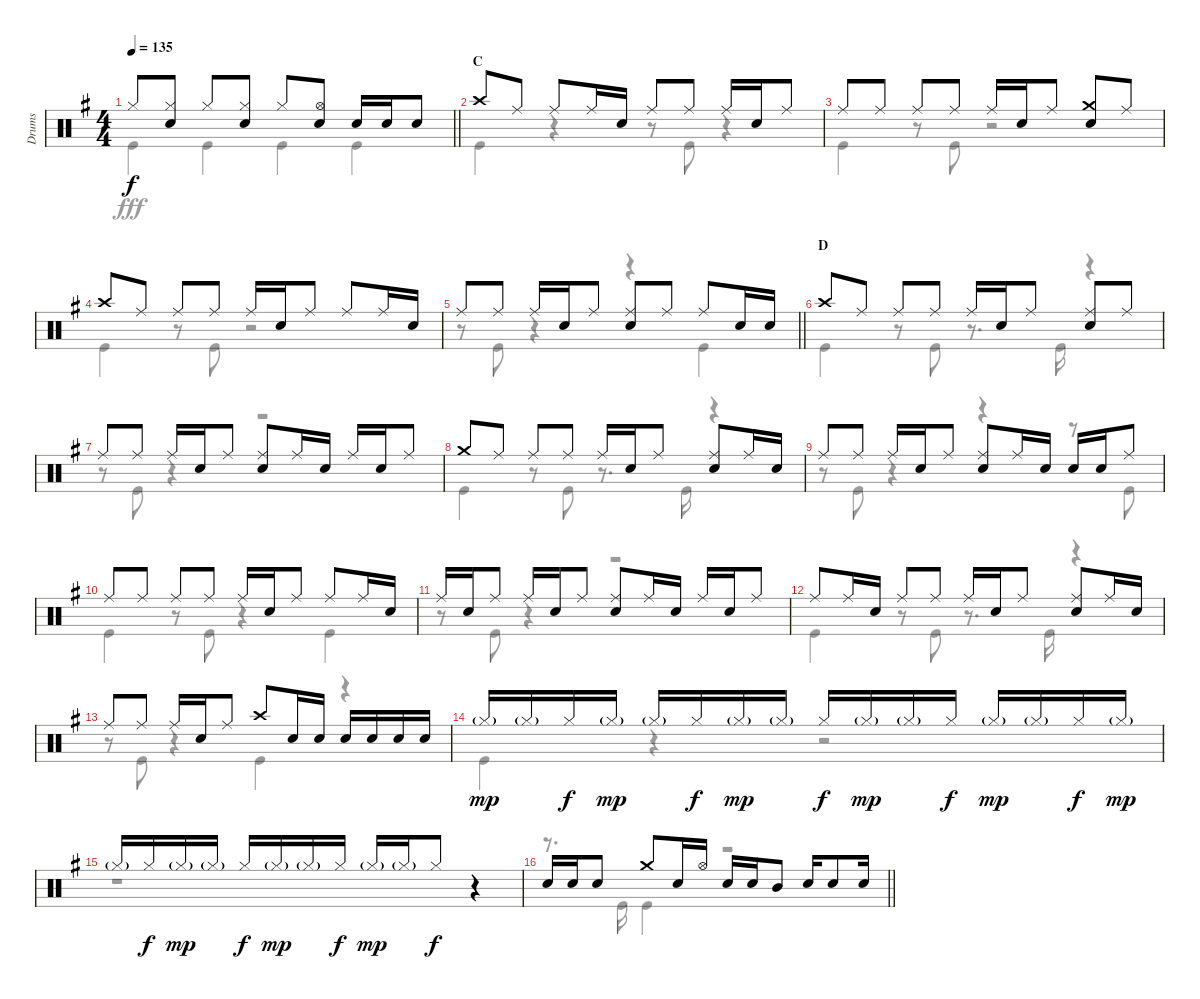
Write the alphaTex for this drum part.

\track ("Drums" "Drums") {instrument percussion}
\staff {score}
\articulation defaults
\voice
\ts (4 4)
\tempo 135
\clef neutral
\barLineRight lightlight
\ks g "Hi-Hat (closed)".8{dy f}
("Hi-Hat (closed)" "Snare (hit) 2").8 "Hi-Hat (closed)".8 ("Hi-Hat (closed)" "Snare (hit) 2").8 "Hi-Hat (closed)".8 ("Hi-Hat (open)" "Snare (hit) 2").8 "Snare (hit) 2".16 "Snare (hit) 2".16 "Snare (hit) 2".8 |
\section ("" "C")
"Crash high (hit)".8 "Ride (middle)".8 "Ride (middle)".8 "Ride (middle)".16 "Snare (hit) 2".16 "Ride (middle)".8 "Ride (middle)".8 "Ride (middle)".16 "Snare (hit) 2".16 "Ride (middle)".8 |
"Ride (middle)".8 "Ride (middle)".8 "Ride (middle)".8 "Ride (middle)".8 "Ride (middle)".16 "Snare (hit) 2".16 "Ride (middle)".8 ("Crash medium (hit)" "Snare (hit) 2").8 "Ride (middle)".8 |
"Crash high (hit)".8 "Ride (middle)".8 "Ride (middle)".8 "Ride (middle)".8 "Ride (middle)".16 "Snare (hit) 2".16 "Ride (middle)".8 "Ride (middle)".8 "Ride (middle)".16 "Snare (hit) 2".16 |
\barLineRight lightlight "Ride (middle)".8 "Ride (middle)".8 "Ride (middle)".16 "Snare (hit) 2".16 "Ride (middle)".8
("Ride (middle)" "Snare (hit) 2").8 "Ride (middle)".8 "Ride (middle)".8 "Snare (hit) 2".16 "Snare (hit) 2".16 |
\section ("" "D")
"Crash high (hit)".8 "Ride (middle)".8 "Ride (middle)".8 "Ride (middle)".8 "Ride (middle)".16 "Snare (hit) 2".16 "Ride (middle)".8 ("Ride (middle)" "Snare (hit) 2").8 "Ride (middle)".8 |
"Ride (middle)".8 "Ride (middle)".8 "Ride (middle)".16 "Snare (hit) 2".16 "Ride (middle)".8 ("Ride (middle)" "Snare (hit) 2").8 "Ride (middle)".16 "Snare (hit) 2".16 "Ride (middle)".16 "Snare (hit) 2".16 "Ride (middle)".8 |
"Crash medium (hit)".8 "Ride (middle)".8 "Ride (middle)".8 "Ride (middle)".8 "Ride (middle)".16 "Snare (hit) 2".16 "Ride (middle)".8 ("Ride (middle)" "Snare (hit) 2").8 "Ride (middle)".16 "Snare (hit) 2".16 |
"Ride (middle)".8 "Ride (middle)".8 "Ride (middle)".16 "Snare (hit) 2".16 "Ride (middle)".8 ("Ride (middle)" "Snare (hit) 2").8 "Ride (middle)".16 "Snare (hit) 2".16 "Snare (hit) 2".16 "Snare (hit) 2".16 "Ride (middle)".8 |
"Ride (middle)".8 "Ride (middle)".8 "Ride (middle)".8 "Ride (middle)".8 "Ride (middle)".16 "Snare (hit) 2".16 "Ride (middle)".8 "Ride (middle)".8 "Ride (middle)".16 "Snare (hit) 2".16 |
"Ride (middle)".16 "Snare (hit) 2".16 "Ride (middle)".8 "Ride (middle)".16 "Snare (hit) 2".16 "Ride (middle)".8 ("Ride (middle)" "Snare (hit) 2").8 "Ride (middle)".16 "Snare (hit) 2".16 "Ride (middle)".16 "Snare (hit) 2".16 "Ride (middle)".8 |
"Ride (middle)".8 "Ride (middle)".16 "Snare (hit) 2".16 "Ride (middle)".8 "Ride (middle)".8 "Ride (middle)".16 "Snare (hit) 2".16 "Ride (middle)".8 ("Ride (middle)" "Snare (hit) 2").8 "Ride (middle)".16 "Snare (hit) 2".16 |
"Ride (middle)".8 "Ride (middle)".8 "Ride (middle)".16 "Snare (hit) 2".16 "Ride (middle)".8 "Crash high (hit)".8 "Snare (hit) 2".16 "Snare (hit) 2".16 "Snare (hit) 2".16 "Snare (hit) 2".16 "Snare (hit) 2".16 "Snare (hit) 2".16 |
"Hi-Hat (closed)"{g}.16{dy mp} "Hi-Hat (closed)"{g}.16 "Hi-Hat (closed)".16{dy f} "Hi-Hat (closed)"{g}.16{dy mp} "Hi-Hat (closed)"{g}.16 "Hi-Hat (closed)".16{dy f} "Hi-Hat (closed)"{g}.16{dy mp} "Hi-Hat (closed)"{g}.16 "Hi-Hat (closed)".16{dy f} "Hi-Hat (closed)"{g}.16{dy mp} "Hi-Hat (closed)"{g}.16 "Hi-Hat (closed)".16{dy f} "Hi-Hat (closed)"{g}.16{dy mp} "Hi-Hat (closed)"{g}.16 "Hi-Hat (closed)".16{dy f} "Hi-Hat (closed)"{g}.16{dy mp} |
"Hi-Hat (closed)"{g}.16 "Hi-Hat (closed)".16{dy f} "Hi-Hat (closed)"{g}.16{dy mp} "Hi-Hat (closed)"{g}.16 "Hi-Hat (closed)".16{dy f} "Hi-Hat (closed)"{g}.16{dy mp} "Hi-Hat (closed)"{g}.16 "Hi-Hat (closed)".16{dy f} "Hi-Hat (closed)"{g}.16{dy mp} "Hi-Hat (closed)"{g}.16 "Hi-Hat (closed)".8{dy f} r.4 |
\barLineRight lightlight "Snare (hit) 2".16 "Snare (hit) 2".16 "Snare (hit) 2".8 "Crash medium (hit)".8 "Snare (hit) 2".16 "Hi-Hat (open)".16 "Snare (hit) 2".16 "Snare (hit) 2".16 "Mid Tom (hit)".8 "Snare (hit) 2".16 "Snare (hit) 2".8 "Snare (hit) 2".16
\voice
\clef neutral
\ottava regular
\simile none
\barLineRight lightlight
\ks g "Kick (hit)".4{dy fff} "Kick (hit)".4 "Kick (hit)".4 "Kick (hit)".4
|
"Kick (hit)".4 r.4 r.8 "Kick (hit)".8 r.4 |
"Kick (hit)".4 r.8 "Kick (hit)".8 r.2 |
"Kick (hit)".4 r.8 "Kick (hit)".8 r.2 |
\barLineRight lightlight
r.8 "Kick (hit)".8 r.4 r.4 "Kick (hit)".4 |
"Kick (hit)".4 r.8 "Kick (hit)".8 r.8{d} "Kick (hit)".16 r.4 |
r.8 "Kick (hit)".8 r.4 r.2 |
"Kick (hit)".4 r.8 "Kick (hit)".8 r.8{d} "Kick (hit)".16 r.4 |
r.8 "Kick (hit)".8 r.4 r.4 r.8 "Kick (hit)".8 |
"Kick (hit)".4 r.8 "Kick (hit)".8 r.4 "Kick (hit)".4 |
r.8 "Kick (hit)".8 r.4 r.2 |
"Kick (hit)".4 r.8 "Kick (hit)".8 r.8{d} "Kick (hit)".16 r.4 |
r.8 "Kick (hit)".8 r.4 "Kick (hit)".4 r.4 |
"Kick (hit)".4 r.4 r.2 |
r.1 |
\barLineRight lightlight
r.8{d} "Kick (hit)".16 "Kick (hit)".4 r.2
